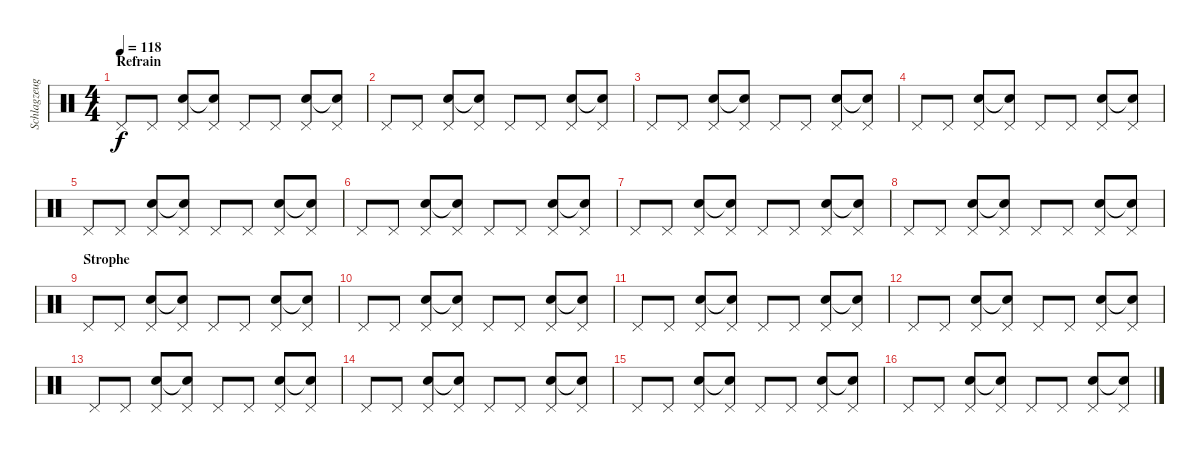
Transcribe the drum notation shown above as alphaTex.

\track ("Schlagzeug" "Schlagzeug") {instrument percussion}
\staff {score}
\articulation defaults
\ts (4 4)
\section ("" "Refrain")
\tempo 118
\clef neutral
\ks c "Pedal Hi-Hat (hit)".8{dy f} "Pedal Hi-Hat (hit)".8
("Pedal Hi-Hat (hit)" "Snare (hit) 2").8 ("Pedal Hi-Hat (hit)" "Snare (hit) 2"{t}).8 "Pedal Hi-Hat (hit)".8 "Pedal Hi-Hat (hit)".8 ("Pedal Hi-Hat (hit)" "Snare (hit) 2").8 ("Pedal Hi-Hat (hit)" "Snare (hit)"{t}).8 |
"Pedal Hi-Hat (hit)".8 "Pedal Hi-Hat (hit)".8 ("Pedal Hi-Hat (hit)" "Snare (hit) 2").8 ("Pedal Hi-Hat (hit)" "Snare (hit) 2"{t}).8 "Pedal Hi-Hat (hit)".8 "Pedal Hi-Hat (hit)".8 ("Pedal Hi-Hat (hit)" "Snare (hit) 2").8 ("Pedal Hi-Hat (hit)" "Snare (hit)"{t}).8 |
"Pedal Hi-Hat (hit)".8 "Pedal Hi-Hat (hit)".8 ("Pedal Hi-Hat (hit)" "Snare (hit) 2").8 ("Pedal Hi-Hat (hit)" "Snare (hit) 2"{t}).8 "Pedal Hi-Hat (hit)".8 "Pedal Hi-Hat (hit)".8 ("Pedal Hi-Hat (hit)" "Snare (hit) 2").8 ("Pedal Hi-Hat (hit)" "Snare (hit)"{t}).8 |
"Pedal Hi-Hat (hit)".8 "Pedal Hi-Hat (hit)".8 ("Pedal Hi-Hat (hit)" "Snare (hit) 2").8 ("Pedal Hi-Hat (hit)" "Snare (hit) 2"{t}).8 "Pedal Hi-Hat (hit)".8 "Pedal Hi-Hat (hit)".8 ("Pedal Hi-Hat (hit)" "Snare (hit) 2").8 ("Pedal Hi-Hat (hit)" "Snare (hit)"{t}).8 |
"Pedal Hi-Hat (hit)".8 "Pedal Hi-Hat (hit)".8 ("Pedal Hi-Hat (hit)" "Snare (hit) 2").8 ("Pedal Hi-Hat (hit)" "Snare (hit) 2"{t}).8 "Pedal Hi-Hat (hit)".8 "Pedal Hi-Hat (hit)".8 ("Pedal Hi-Hat (hit)" "Snare (hit) 2").8 ("Pedal Hi-Hat (hit)" "Snare (hit)"{t}).8 |
"Pedal Hi-Hat (hit)".8 "Pedal Hi-Hat (hit)".8 ("Pedal Hi-Hat (hit)" "Snare (hit) 2").8 ("Pedal Hi-Hat (hit)" "Snare (hit) 2"{t}).8 "Pedal Hi-Hat (hit)".8 "Pedal Hi-Hat (hit)".8 ("Pedal Hi-Hat (hit)" "Snare (hit) 2").8 ("Pedal Hi-Hat (hit)" "Snare (hit)"{t}).8 |
"Pedal Hi-Hat (hit)".8 "Pedal Hi-Hat (hit)".8 ("Pedal Hi-Hat (hit)" "Snare (hit) 2").8 ("Pedal Hi-Hat (hit)" "Snare (hit) 2"{t}).8 "Pedal Hi-Hat (hit)".8 "Pedal Hi-Hat (hit)".8 ("Pedal Hi-Hat (hit)" "Snare (hit) 2").8 ("Pedal Hi-Hat (hit)" "Snare (hit)"{t}).8 |
"Pedal Hi-Hat (hit)".8 "Pedal Hi-Hat (hit)".8 ("Pedal Hi-Hat (hit)" "Snare (hit) 2").8 ("Pedal Hi-Hat (hit)" "Snare (hit) 2"{t}).8 "Pedal Hi-Hat (hit)".8 "Pedal Hi-Hat (hit)".8 ("Pedal Hi-Hat (hit)" "Snare (hit) 2").8 ("Pedal Hi-Hat (hit)" "Snare (hit)"{t}).8 |
\section ("" "Strophe")
"Pedal Hi-Hat (hit)".8 "Pedal Hi-Hat (hit)".8 ("Pedal Hi-Hat (hit)" "Snare (hit) 2").8 ("Pedal Hi-Hat (hit)" "Snare (hit) 2"{t}).8 "Pedal Hi-Hat (hit)".8 "Pedal Hi-Hat (hit)".8 ("Pedal Hi-Hat (hit)" "Snare (hit) 2").8 ("Pedal Hi-Hat (hit)" "Snare (hit)"{t}).8 |
"Pedal Hi-Hat (hit)".8 "Pedal Hi-Hat (hit)".8 ("Pedal Hi-Hat (hit)" "Snare (hit) 2").8 ("Pedal Hi-Hat (hit)" "Snare (hit) 2"{t}).8 "Pedal Hi-Hat (hit)".8 "Pedal Hi-Hat (hit)".8 ("Pedal Hi-Hat (hit)" "Snare (hit) 2").8 ("Pedal Hi-Hat (hit)" "Snare (hit)"{t}).8 |
"Pedal Hi-Hat (hit)".8 "Pedal Hi-Hat (hit)".8 ("Pedal Hi-Hat (hit)" "Snare (hit) 2").8 ("Pedal Hi-Hat (hit)" "Snare (hit) 2"{t}).8 "Pedal Hi-Hat (hit)".8 "Pedal Hi-Hat (hit)".8 ("Pedal Hi-Hat (hit)" "Snare (hit) 2").8 ("Pedal Hi-Hat (hit)" "Snare (hit)"{t}).8 |
"Pedal Hi-Hat (hit)".8 "Pedal Hi-Hat (hit)".8 ("Pedal Hi-Hat (hit)" "Snare (hit) 2").8 ("Pedal Hi-Hat (hit)" "Snare (hit) 2"{t}).8 "Pedal Hi-Hat (hit)".8 "Pedal Hi-Hat (hit)".8 ("Pedal Hi-Hat (hit)" "Snare (hit) 2").8 ("Pedal Hi-Hat (hit)" "Snare (hit)"{t}).8 |
"Pedal Hi-Hat (hit)".8 "Pedal Hi-Hat (hit)".8 ("Pedal Hi-Hat (hit)" "Snare (hit) 2").8 ("Pedal Hi-Hat (hit)" "Snare (hit) 2"{t}).8 "Pedal Hi-Hat (hit)".8 "Pedal Hi-Hat (hit)".8 ("Pedal Hi-Hat (hit)" "Snare (hit) 2").8 ("Pedal Hi-Hat (hit)" "Snare (hit)"{t}).8 |
"Pedal Hi-Hat (hit)".8 "Pedal Hi-Hat (hit)".8 ("Pedal Hi-Hat (hit)" "Snare (hit) 2").8 ("Pedal Hi-Hat (hit)" "Snare (hit) 2"{t}).8 "Pedal Hi-Hat (hit)".8 "Pedal Hi-Hat (hit)".8 ("Pedal Hi-Hat (hit)" "Snare (hit) 2").8 ("Pedal Hi-Hat (hit)" "Snare (hit)"{t}).8 |
"Pedal Hi-Hat (hit)".8 "Pedal Hi-Hat (hit)".8 ("Pedal Hi-Hat (hit)" "Snare (hit) 2").8 ("Pedal Hi-Hat (hit)" "Snare (hit) 2"{t}).8 "Pedal Hi-Hat (hit)".8 "Pedal Hi-Hat (hit)".8 ("Pedal Hi-Hat (hit)" "Snare (hit) 2").8 ("Pedal Hi-Hat (hit)" "Snare (hit)"{t}).8 |
"Pedal Hi-Hat (hit)".8 "Pedal Hi-Hat (hit)".8 ("Pedal Hi-Hat (hit)" "Snare (hit) 2").8 ("Pedal Hi-Hat (hit)" "Snare (hit) 2"{t}).8 "Pedal Hi-Hat (hit)".8 "Pedal Hi-Hat (hit)".8 ("Pedal Hi-Hat (hit)" "Snare (hit) 2").8 ("Pedal Hi-Hat (hit)" "Snare (hit)"{t}).8
